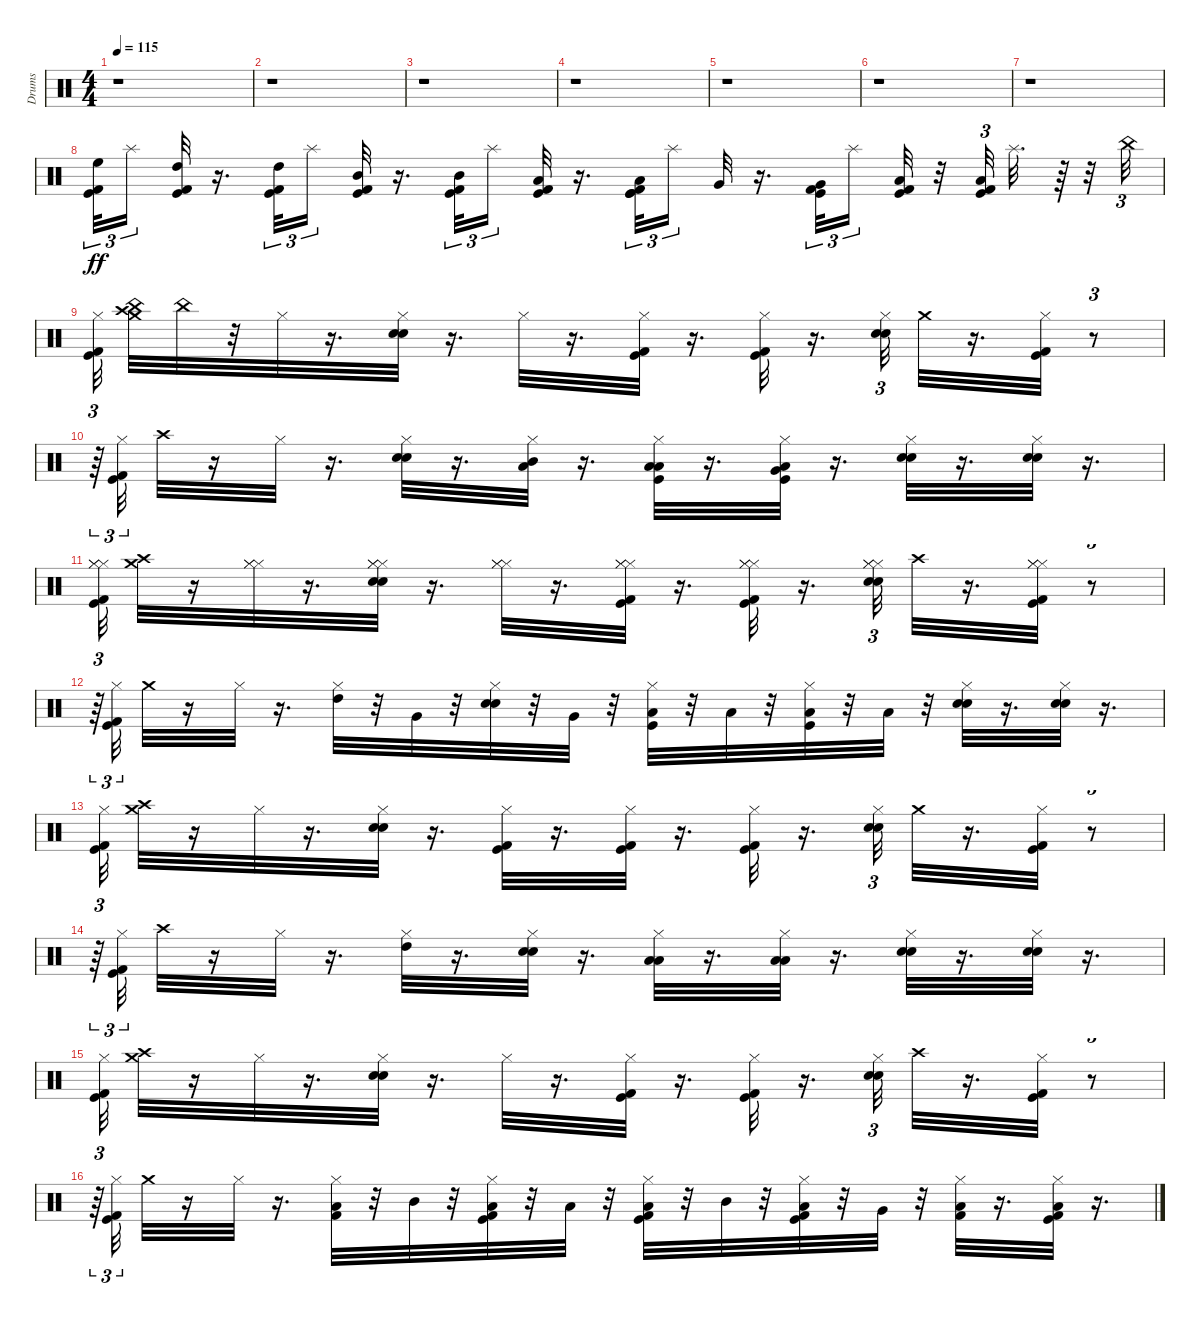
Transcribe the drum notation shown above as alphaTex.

\track ("Drums" "Drums") {instrument percussion}
\staff {score}
\articulation defaults
\ts (4 4)
\tempo 115
\clef neutral
\ks c
r.1{dy ff} |
r.1 |
r.1 |
r.1 |
r.1 |
r.1 |
r.1 |
("Kick (hit)" "Kick (hit) 2" "High Floor Tom (hit)").32{tu (3 2)} "Splash (hit)".16{tu (3 2)} ("Kick (hit) 2" "High Tom (hit)" "Kick (hit)").32 r.16{d} ("High Tom (hit)" "Kick (hit) 2" "Kick (hit)").32{tu (3 2)} "Splash (hit)".16{tu (3 2)} ("Mid Tom (hit)" "Kick (hit) 2" "Kick (hit)").32 r.16{d} ("Kick (hit)" "Mid Tom (hit)" "Kick (hit) 2").32{tu (3 2)} "Splash (hit)".16{tu (3 2)} ("Kick (hit) 2" "Kick (hit)" "Low Tom (hit)").32 r.16{d} ("Kick (hit)" "Low Tom (hit)" "Kick (hit) 2" "Kick (hit)").32{tu (3 2)} "Splash (hit)".16{tu (3 2)} "Very Low Tom (hit)".32 r.16{d} ("Kick (hit) 2" "Very Low Tom (hit)" "Kick (hit)").32{tu (3 2)} "Splash (hit)".16{tu (3 2)} ("Kick (hit)" "Low Floor Tom (hit)" "Kick (hit) 2").32 r.32 ("Low Floor Tom (hit)" "Kick (hit)" "Kick (hit) 2").32{tu (3 2)} "Splash (hit)".32{d} r.64 r.32 "China (hit)".32{tu (3 2)} |
("Kick (hit) 2" "Kick (hit)" "Hi-Hat (closed)").32{tu (3 2)} ("China (hit)" "Crash medium (hit)" "Crash high (hit)").32 "China (hit)".32 r.32 "Hi-Hat (closed)".32 r.16{d} ("Hi-Hat (closed)" "Electric Snare (hit)" "Snare (hit) 2").32 r.16{d} "Hi-Hat (closed)".32 r.16{d} ("Kick (hit) 2" "Hi-Hat (closed)" "Kick (hit)").32 r.16{d} ("Kick (hit)" "Kick (hit) 2" "Hi-Hat (closed)").32 r.16{d} ("Snare (hit) 2" "Hi-Hat (closed)" "Electric Snare (hit)").32{tu (3 2)} "Crash medium (hit)".32 r.16{d} ("Kick (hit)" "Hi-Hat (closed)" "Kick (hit) 2").32 r.8{tu (3 2)} |
r.64{tu (3 2)} ("Hi-Hat (closed)" "Kick (hit)" "Kick (hit) 2").32{tu (3 2)} "Crash high (hit)".32 r.16 "Hi-Hat (closed)".32 r.16{d} ("Hi-Hat (closed)" "Snare (hit) 2" "Electric Snare (hit)").32 r.16{d} ("Mid Tom (hit)" "Hi-Hat (closed)" "Low Floor Tom (hit)").32 r.16{d} ("Hi-Hat (closed)" "Low Tom (hit)" "Kick (hit)" "Low Floor Tom (hit)").32 r.16{d} ("Very Low Tom (hit)" "Low Floor Tom (hit)" "Kick (hit)" "Hi-Hat (closed)").32 r.16{d} ("Electric Snare (hit)" "Snare (hit) 2" "Hi-Hat (closed)").32 r.16{d} ("Electric Snare (hit)" "Snare (hit) 2" "Hi-Hat (closed)").32 r.16{d} |
("Hi-Hat (closed)" "Kick (hit)" "Hi-Hat (closed)" "Kick (hit) 2" "Hi-Hat (closed)").32{tu (3 2)} ("Crash medium (hit)" "Crash high (hit)").32 r.16 ("Hi-Hat (closed)" "Hi-Hat (closed)" "Hi-Hat (closed)").32 r.16{d} ("Snare (hit) 2" "Electric Snare (hit)" "Hi-Hat (closed)" "Hi-Hat (closed)" "Hi-Hat (closed)").32 r.16{d} ("Hi-Hat (closed)" "Hi-Hat (closed)" "Hi-Hat (closed)").32 r.16{d} ("Hi-Hat (closed)" "Hi-Hat (closed)" "Kick (hit)" "Kick (hit) 2" "Hi-Hat (closed)").32 r.16{d} ("Kick (hit)" "Kick (hit) 2" "Hi-Hat (closed)" "Hi-Hat (closed)" "Hi-Hat (closed)").32 r.16{d} ("Hi-Hat (closed)" "Electric Snare (hit)" "Hi-Hat (closed)" "Snare (hit) 2" "Hi-Hat (closed)").32{tu (3 2)} "Crash high (hit)".32 r.16{d} ("Hi-Hat (closed)" "Kick (hit)" "Hi-Hat (closed)" "Kick (hit) 2" "Hi-Hat (closed)").32 r.8{tu (3 2)} |
r.64{tu (3 2)} ("Kick (hit)" "Hi-Hat (closed)" "Kick (hit) 2").32{tu (3 2)} "Crash medium (hit)".32 r.16 "Hi-Hat (closed)".32 r.16{d} ("Hi-Hat (closed)" "High Tom (hit)").32 r.32 "Very Low Tom (hit)".32 r.32 ("Electric Snare (hit)" "Hi-Hat (closed)" "Snare (hit) 2").32 r.32 "Very Low Tom (hit)".32 r.32 ("Hi-Hat (closed)" "Low Tom (hit)" "Kick (hit)").32 r.32 "Low Floor Tom (hit)".32 r.32 ("Low Tom (hit)" "Hi-Hat (closed)" "Kick (hit)").32 r.32 "Low Floor Tom (hit)".32 r.32 ("Hi-Hat (closed)" "Snare (hit) 2" "Electric Snare (hit)").32 r.16{d} ("Snare (hit) 2" "Electric Snare (hit)" "Hi-Hat (closed)").32 r.16{d} |
("Hi-Hat (closed)" "Kick (hit) 2" "Kick (hit)").32{tu (3 2)} ("Crash high (hit)" "Crash medium (hit)").32 r.16 "Hi-Hat (closed)".32 r.16{d} ("Snare (hit) 2" "Electric Snare (hit)" "Hi-Hat (closed)").32 r.16{d} ("Hi-Hat (closed)" "Kick (hit) 2" "Kick (hit)").32 r.16{d} ("Kick (hit) 2" "Kick (hit)" "Hi-Hat (closed)").32 r.16{d} ("Hi-Hat (closed)" "Kick (hit)" "Kick (hit) 2").32 r.16{d} ("Snare (hit) 2" "Electric Snare (hit)" "Hi-Hat (closed)").32{tu (3 2)} "Crash medium (hit)".32 r.16{d} ("Kick (hit)" "Kick (hit) 2" "Hi-Hat (closed)").32 r.8{tu (3 2)} |
r.64{tu (3 2)} ("Kick (hit) 2" "Hi-Hat (closed)" "Kick (hit)").32{tu (3 2)} "Crash high (hit)".32 r.16 "Hi-Hat (closed)".32 r.16{d} ("High Tom (hit)" "Hi-Hat (closed)").32 r.16{d} ("Hi-Hat (closed)" "Snare (hit) 2" "Electric Snare (hit)").32 r.16{d} ("Hi-Hat (closed)" "Low Floor Tom (hit)" "Low Tom (hit)").32 r.16{d} ("Hi-Hat (closed)" "Low Floor Tom (hit)" "Low Tom (hit)").32 r.16{d} ("Snare (hit) 2" "Electric Snare (hit)" "Hi-Hat (closed)").32 r.16{d} ("Hi-Hat (closed)" "Electric Snare (hit)" "Snare (hit) 2").32 r.16{d} |
("Hi-Hat (closed)" "Kick (hit)" "Kick (hit) 2").32{tu (3 2)} ("Crash medium (hit)" "Crash high (hit)").32 r.16 "Hi-Hat (closed)".32 r.16{d} ("Electric Snare (hit)" "Snare (hit) 2" "Hi-Hat (closed)").32 r.16{d} "Hi-Hat (closed)".32 r.16{d} ("Kick (hit) 2" "Hi-Hat (closed)" "Kick (hit)").32 r.16{d} ("Kick (hit)" "Kick (hit) 2" "Hi-Hat (closed)").32 r.16{d} ("Electric Snare (hit)" "Snare (hit) 2" "Hi-Hat (closed)").32{tu (3 2)} "Crash high (hit)".32 r.16{d} ("Kick (hit) 2" "Hi-Hat (closed)" "Kick (hit)").32 r.8{tu (3 2)} |
r.64{tu (3 2)} ("Hi-Hat (closed)" "Kick (hit) 2" "Kick (hit)").32{tu (3 2)} "Crash medium (hit)".32 r.16 "Hi-Hat (closed)".32 r.16{d} ("Hi-Hat (closed)" "Kick (hit) 2" "Low Floor Tom (hit)").32 r.32 "Mid Tom (hit)".32 r.32 ("Low Floor Tom (hit)" "Hi-Hat (closed)" "Kick (hit)" "Kick (hit) 2").32 r.32 "Low Tom (hit)".32 r.32 ("Kick (hit)" "Low Floor Tom (hit)" "Hi-Hat (closed)" "Kick (hit) 2").32 r.32 "Mid Tom (hit)".32 r.32 ("Kick (hit) 2" "Low Floor Tom (hit)" "Kick (hit)" "Hi-Hat (closed)").32 r.32 "Very Low Tom (hit)".32 r.32 ("Low Floor Tom (hit)" "Hi-Hat (closed)" "Kick (hit) 2").32 r.16{d} ("Kick (hit) 2" "Kick (hit)" "Low Floor Tom (hit)" "Hi-Hat (closed)").32 r.16{d}
